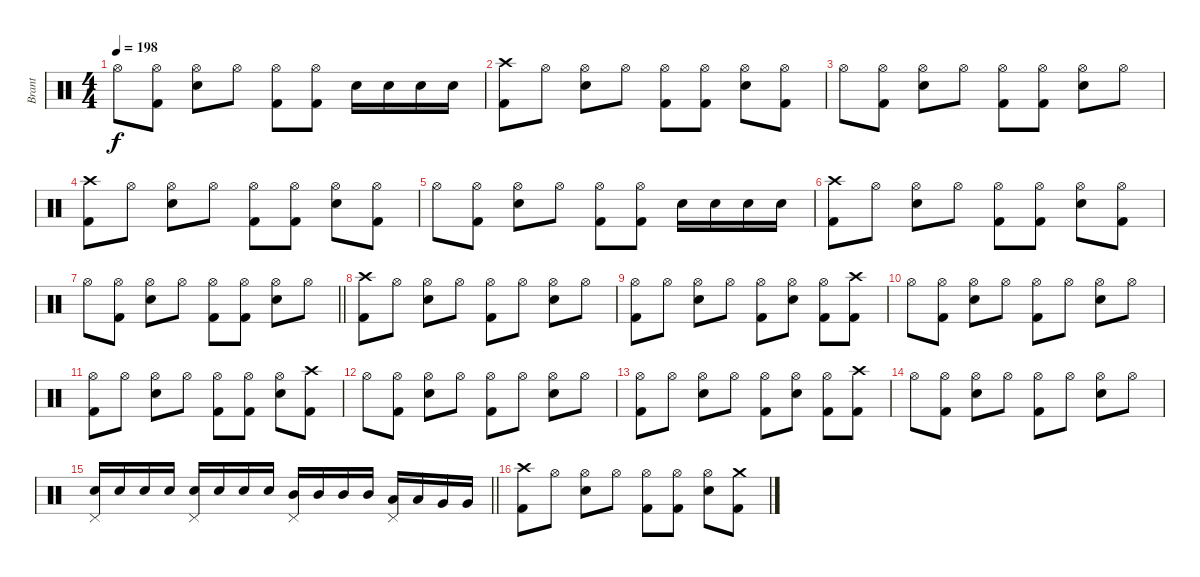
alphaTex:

\track ("Brant" "Brant") {instrument percussion}
\staff {score}
\articulation defaults
\ts (4 4)
\tempo 198
\clef neutral
\ks c "Hi-Hat (open)".8{dy f}
("Hi-Hat (open)" "Kick (hit) 2").8 ("Hi-Hat (open)" "Electric Snare (hit)").8 "Hi-Hat (open)".8 ("Hi-Hat (open)" "Kick (hit) 2").8 ("Hi-Hat (open)" "Kick (hit) 2").8 "Electric Snare (hit)".16 "Electric Snare (hit)".16 "Electric Snare (hit)".16 "Electric Snare (hit)".16 |
("Crash high (hit)" "Kick (hit) 2").8 "Hi-Hat (open)".8 ("Hi-Hat (open)" "Electric Snare (hit)").8 "Hi-Hat (open)".8 ("Hi-Hat (open)" "Kick (hit) 2").8 ("Hi-Hat (open)" "Kick (hit) 2").8 ("Hi-Hat (open)" "Electric Snare (hit)").8 ("Hi-Hat (open)" "Kick (hit) 2").8 |
"Hi-Hat (open)".8 ("Hi-Hat (open)" "Kick (hit) 2").8 ("Hi-Hat (open)" "Electric Snare (hit)").8 "Hi-Hat (open)".8 ("Hi-Hat (open)" "Kick (hit) 2").8 ("Hi-Hat (open)" "Kick (hit) 2").8 ("Hi-Hat (open)" "Electric Snare (hit)").8 "Hi-Hat (open)".8 |
("Crash high (hit)" "Kick (hit) 2").8 "Hi-Hat (open)".8 ("Hi-Hat (open)" "Electric Snare (hit)").8 "Hi-Hat (open)".8 ("Hi-Hat (open)" "Kick (hit) 2").8 ("Hi-Hat (open)" "Kick (hit) 2").8 ("Hi-Hat (open)" "Electric Snare (hit)").8 ("Hi-Hat (open)" "Kick (hit) 2").8 |
"Hi-Hat (open)".8 ("Hi-Hat (open)" "Kick (hit) 2").8 ("Hi-Hat (open)" "Electric Snare (hit)").8 "Hi-Hat (open)".8 ("Hi-Hat (open)" "Kick (hit) 2").8 ("Hi-Hat (open)" "Kick (hit) 2").8 "Electric Snare (hit)".16 "Electric Snare (hit)".16 "Electric Snare (hit)".16 "Electric Snare (hit)".16 |
("Crash high (hit)" "Kick (hit) 2").8 "Hi-Hat (open)".8 ("Hi-Hat (open)" "Electric Snare (hit)").8 "Hi-Hat (open)".8 ("Hi-Hat (open)" "Kick (hit) 2").8 ("Hi-Hat (open)" "Kick (hit) 2").8 ("Hi-Hat (open)" "Electric Snare (hit)").8 ("Hi-Hat (open)" "Kick (hit) 2").8 |
\barLineRight lightlight "Hi-Hat (open)".8
("Hi-Hat (open)" "Kick (hit) 2").8 ("Hi-Hat (open)" "Electric Snare (hit)").8 "Hi-Hat (open)".8 ("Hi-Hat (open)" "Kick (hit) 2").8 ("Hi-Hat (open)" "Kick (hit) 2").8 ("Hi-Hat (open)" "Electric Snare (hit)").8 "Hi-Hat (open)".8 |
\section ("" "")
("Crash high (hit)" "Kick (hit) 2").8 "Hi-Hat (open)".8 ("Hi-Hat (open)" "Electric Snare (hit)").8 "Hi-Hat (open)".8 ("Hi-Hat (open)" "Kick (hit) 2").8 "Hi-Hat (open)".8 ("Hi-Hat (open)" "Electric Snare (hit)").8 "Hi-Hat (open)".8 |
("Hi-Hat (open)" "Kick (hit) 2").8 "Hi-Hat (open)".8 ("Hi-Hat (open)" "Electric Snare (hit)").8 "Hi-Hat (open)".8 ("Hi-Hat (open)" "Kick (hit) 2").8 ("Hi-Hat (open)" "Electric Snare (hit)").8 ("Hi-Hat (open)" "Kick (hit) 2").8 ("Crash high (hit)" "Kick (hit) 2").8 |
"Hi-Hat (open)".8 ("Hi-Hat (open)" "Kick (hit) 2").8 ("Hi-Hat (open)" "Electric Snare (hit)").8 "Hi-Hat (open)".8 ("Hi-Hat (open)" "Kick (hit) 2").8 "Hi-Hat (open)".8 ("Hi-Hat (open)" "Electric Snare (hit)").8 "Hi-Hat (open)".8 |
("Hi-Hat (open)" "Kick (hit) 2").8 "Hi-Hat (open)".8 ("Hi-Hat (open)" "Electric Snare (hit)").8 "Hi-Hat (open)".8 ("Hi-Hat (open)" "Kick (hit) 2").8 ("Hi-Hat (open)" "Kick (hit) 2").8 ("Hi-Hat (open)" "Electric Snare (hit)").8 ("Crash high (hit)" "Kick (hit) 2").8 |
"Hi-Hat (open)".8 ("Hi-Hat (open)" "Kick (hit) 2").8 ("Hi-Hat (open)" "Electric Snare (hit)").8 "Hi-Hat (open)".8 ("Hi-Hat (open)" "Kick (hit) 2").8 "Hi-Hat (open)".8 ("Hi-Hat (open)" "Electric Snare (hit)").8 "Hi-Hat (open)".8 |
("Hi-Hat (open)" "Kick (hit) 2").8 "Hi-Hat (open)".8 ("Hi-Hat (open)" "Electric Snare (hit)").8 "Hi-Hat (open)".8 ("Hi-Hat (open)" "Kick (hit) 2").8 ("Hi-Hat (open)" "Electric Snare (hit)").8 ("Hi-Hat (open)" "Kick (hit) 2").8 ("Crash high (hit)" "Kick (hit) 2").8 |
"Hi-Hat (open)".8 ("Hi-Hat (open)" "Kick (hit) 2").8 ("Hi-Hat (open)" "Electric Snare (hit)").8 "Hi-Hat (open)".8 ("Hi-Hat (open)" "Kick (hit) 2").8 "Hi-Hat (open)".8 ("Hi-Hat (open)" "Electric Snare (hit)").8 "Hi-Hat (open)".8 |
\barLineRight lightlight
("Pedal Hi-Hat (hit)" "Electric Snare (hit)").16 "Electric Snare (hit)".16 "Electric Snare (hit)".16 "Electric Snare (hit)".16 ("Pedal Hi-Hat (hit)" "Electric Snare (hit)").16 "Electric Snare (hit)".16 "Electric Snare (hit)".16 "Electric Snare (hit)".16 ("Pedal Hi-Hat (hit)" "Mid Tom (hit)").16 "Mid Tom (hit)".16 "Mid Tom (hit)".16 "Mid Tom (hit)".16 ("Pedal Hi-Hat (hit)" "Low Tom (hit)").16 "Low Tom (hit)".16 "Very Low Tom (hit)".16 "Very Low Tom (hit)".16 |
\section ("" "")
("Crash high (hit)" "Kick (hit) 2").8 "Hi-Hat (open)".8 ("Hi-Hat (open)" "Electric Snare (hit)").8 "Hi-Hat (open)".8 ("Hi-Hat (open)" "Kick (hit) 2").8 ("Hi-Hat (open)" "Kick (hit) 2").8 ("Hi-Hat (open)" "Electric Snare (hit)").8 ("Crash medium (hit)" "Kick (hit) 2").8
